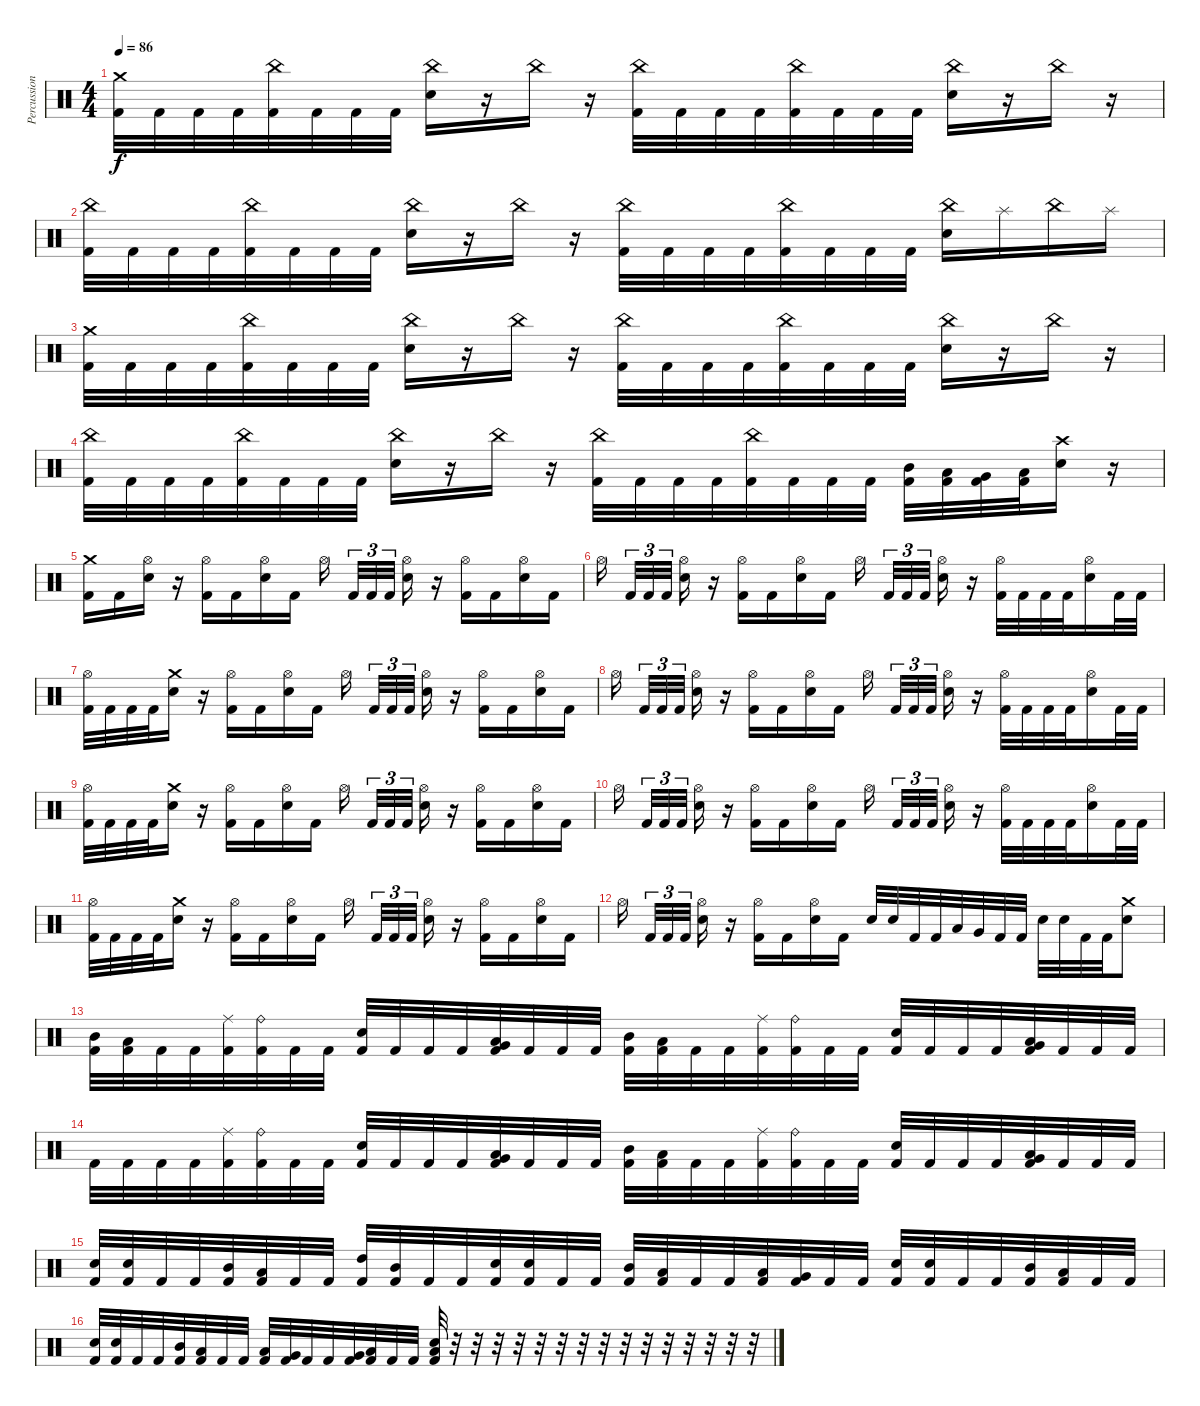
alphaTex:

\track ("Percussion" "Percussion") {instrument percussion}
\staff {score}
\articulation defaults
\ts (4 4)
\tempo 86
\clef neutral
\ks c
("Crash medium (hit)" "Kick (hit) 2").32{dy f} "Kick (hit) 2".32 "Kick (hit) 2".32 "Kick (hit) 2".32 ("China (hit)" "Kick (hit) 2").32 "Kick (hit) 2".32 "Kick (hit) 2".32 "Kick (hit) 2".32 ("China (hit)" "Electric Snare (hit)").16 r.16 "China (hit)".16 r.16 ("China (hit)" "Kick (hit) 2").32 "Kick (hit) 2".32 "Kick (hit) 2".32 "Kick (hit) 2".32 ("China (hit)" "Kick (hit) 2").32 "Kick (hit) 2".32 "Kick (hit) 2".32 "Kick (hit) 2".32 ("China (hit)" "Electric Snare (hit)").16 r.16 "China (hit)".16 r.16 |
("China (hit)" "Kick (hit) 2").32 "Kick (hit) 2".32 "Kick (hit) 2".32 "Kick (hit) 2".32 ("China (hit)" "Kick (hit) 2").32 "Kick (hit) 2".32 "Kick (hit) 2".32 "Kick (hit) 2".32 ("China (hit)" "Electric Snare (hit)").16 r.16 "China (hit)".16 r.16 ("China (hit)" "Kick (hit) 2").32 "Kick (hit) 2".32 "Kick (hit) 2".32 "Kick (hit) 2".32 ("China (hit)" "Kick (hit) 2").32 "Kick (hit) 2".32 "Kick (hit) 2".32 "Kick (hit) 2".32 ("China (hit)" "Electric Snare (hit)").16 "Splash (hit)".16 "China (hit)".16 "Splash (hit)".16 |
("Crash medium (hit)" "Kick (hit) 2").32 "Kick (hit) 2".32 "Kick (hit) 2".32 "Kick (hit) 2".32 ("China (hit)" "Kick (hit) 2").32 "Kick (hit) 2".32 "Kick (hit) 2".32 "Kick (hit) 2".32 ("China (hit)" "Electric Snare (hit)").16 r.16 "China (hit)".16 r.16 ("China (hit)" "Kick (hit) 2").32 "Kick (hit) 2".32 "Kick (hit) 2".32 "Kick (hit) 2".32 ("China (hit)" "Kick (hit) 2").32 "Kick (hit) 2".32 "Kick (hit) 2".32 "Kick (hit) 2".32 ("China (hit)" "Electric Snare (hit)").16 r.16 "China (hit)".16 r.16 |
("China (hit)" "Kick (hit) 2").32 "Kick (hit) 2".32 "Kick (hit) 2".32 "Kick (hit) 2".32 ("China (hit)" "Kick (hit) 2").32 "Kick (hit) 2".32 "Kick (hit) 2".32 "Kick (hit) 2".32 ("China (hit)" "Electric Snare (hit)").16 r.16 "China (hit)".16 r.16 ("China (hit)" "Kick (hit) 2").32 "Kick (hit) 2".32 "Kick (hit) 2".32 "Kick (hit) 2".32 ("China (hit)" "Kick (hit) 2").32 "Kick (hit) 2".32 "Kick (hit) 2".32 "Kick (hit) 2".32 ("Mid Tom (hit)" "Kick (hit) 2").32 ("Low Tom (hit)" "Kick (hit) 2").32 ("Very Low Tom (hit)" "Kick (hit) 2").32 ("Low Floor Tom (hit)" "Kick (hit) 2").32 ("Crash high (hit)" "Electric Snare (hit)").16 r.16 |
("Crash medium (hit)" "Kick (hit) 2").16 "Kick (hit) 2".16 ("Hi-Hat (open)" "Electric Snare (hit)").16 r.16 ("Hi-Hat (open)" "Kick (hit) 2").16 "Kick (hit) 2".16 ("Hi-Hat (open)" "Electric Snare (hit)").16 "Kick (hit) 2".16 "Hi-Hat (open)".16 "Kick (hit) 2".32{tu (3 2)} "Kick (hit) 2".32{tu (3 2)} "Kick (hit) 2".32{tu (3 2)} ("Hi-Hat (open)" "Electric Snare (hit)").16 r.16 ("Hi-Hat (open)" "Kick (hit) 2").16 "Kick (hit) 2".16 ("Hi-Hat (open)" "Electric Snare (hit)").16 "Kick (hit) 2".16 |
"Hi-Hat (open)".16 "Kick (hit) 2".32{tu (3 2)} "Kick (hit) 2".32{tu (3 2)} "Kick (hit) 2".32{tu (3 2)} ("Hi-Hat (open)" "Electric Snare (hit)").16 r.16 ("Hi-Hat (open)" "Kick (hit) 2").16 "Kick (hit) 2".16 ("Hi-Hat (open)" "Electric Snare (hit)").16 "Kick (hit) 2".16 "Hi-Hat (open)".16 "Kick (hit) 2".32{tu (3 2)} "Kick (hit) 2".32{tu (3 2)} "Kick (hit) 2".32{tu (3 2)} ("Hi-Hat (open)" "Electric Snare (hit)").16 r.16 ("Hi-Hat (open)" "Kick (hit) 2").32 "Kick (hit) 2".32 "Kick (hit) 2".32 "Kick (hit) 2".32 ("Hi-Hat (open)" "Electric Snare (hit)").16 "Kick (hit) 2".32 "Kick (hit) 2".32 |
("Hi-Hat (open)" "Kick (hit) 2").32 "Kick (hit) 2".32 "Kick (hit) 2".32 "Kick (hit) 2".32 ("Crash medium (hit)" "Electric Snare (hit)").16 r.16 ("Hi-Hat (open)" "Kick (hit) 2").16 "Kick (hit) 2".16 ("Hi-Hat (open)" "Electric Snare (hit)").16 "Kick (hit) 2".16 "Hi-Hat (open)".16 "Kick (hit) 2".32{tu (3 2)} "Kick (hit) 2".32{tu (3 2)} "Kick (hit) 2".32{tu (3 2)} ("Hi-Hat (open)" "Electric Snare (hit)").16 r.16 ("Hi-Hat (open)" "Kick (hit) 2").16 "Kick (hit) 2".16 ("Hi-Hat (open)" "Electric Snare (hit)").16 "Kick (hit) 2".16 |
"Hi-Hat (open)".16 "Kick (hit) 2".32{tu (3 2)} "Kick (hit) 2".32{tu (3 2)} "Kick (hit) 2".32{tu (3 2)} ("Hi-Hat (open)" "Electric Snare (hit)").16 r.16 ("Hi-Hat (open)" "Kick (hit) 2").16 "Kick (hit) 2".16 ("Hi-Hat (open)" "Electric Snare (hit)").16 "Kick (hit) 2".16 "Hi-Hat (open)".16 "Kick (hit) 2".32{tu (3 2)} "Kick (hit) 2".32{tu (3 2)} "Kick (hit) 2".32{tu (3 2)} ("Hi-Hat (open)" "Electric Snare (hit)").16 r.16 ("Hi-Hat (open)" "Kick (hit) 2").32 "Kick (hit) 2".32 "Kick (hit) 2".32 "Kick (hit) 2".32 ("Hi-Hat (open)" "Electric Snare (hit)").16 "Kick (hit) 2".32 "Kick (hit) 2".32 |
("Hi-Hat (open)" "Kick (hit) 2").32 "Kick (hit) 2".32 "Kick (hit) 2".32 "Kick (hit) 2".32 ("Crash medium (hit)" "Electric Snare (hit)").16 r.16 ("Hi-Hat (open)" "Kick (hit) 2").16 "Kick (hit) 2".16 ("Hi-Hat (open)" "Electric Snare (hit)").16 "Kick (hit) 2".16 "Hi-Hat (open)".16 "Kick (hit) 2".32{tu (3 2)} "Kick (hit) 2".32{tu (3 2)} "Kick (hit) 2".32{tu (3 2)} ("Hi-Hat (open)" "Electric Snare (hit)").16 r.16 ("Hi-Hat (open)" "Kick (hit) 2").16 "Kick (hit) 2".16 ("Hi-Hat (open)" "Electric Snare (hit)").16 "Kick (hit) 2".16 |
"Hi-Hat (open)".16 "Kick (hit) 2".32{tu (3 2)} "Kick (hit) 2".32{tu (3 2)} "Kick (hit) 2".32{tu (3 2)} ("Hi-Hat (open)" "Electric Snare (hit)").16 r.16 ("Hi-Hat (open)" "Kick (hit) 2").16 "Kick (hit) 2".16 ("Hi-Hat (open)" "Electric Snare (hit)").16 "Kick (hit) 2".16 "Hi-Hat (open)".16 "Kick (hit) 2".32{tu (3 2)} "Kick (hit) 2".32{tu (3 2)} "Kick (hit) 2".32{tu (3 2)} ("Hi-Hat (open)" "Electric Snare (hit)").16 r.16 ("Hi-Hat (open)" "Kick (hit) 2").32 "Kick (hit) 2".32 "Kick (hit) 2".32 "Kick (hit) 2".32 ("Hi-Hat (open)" "Electric Snare (hit)").16 "Kick (hit) 2".32 "Kick (hit) 2".32 |
("Hi-Hat (open)" "Kick (hit) 2").32 "Kick (hit) 2".32 "Kick (hit) 2".32 "Kick (hit) 2".32 ("Crash medium (hit)" "Electric Snare (hit)").16 r.16 ("Hi-Hat (open)" "Kick (hit) 2").16 "Kick (hit) 2".16 ("Hi-Hat (open)" "Electric Snare (hit)").16 "Kick (hit) 2".16 "Hi-Hat (open)".16 "Kick (hit) 2".32{tu (3 2)} "Kick (hit) 2".32{tu (3 2)} "Kick (hit) 2".32{tu (3 2)} ("Hi-Hat (open)" "Electric Snare (hit)").16 r.16 ("Hi-Hat (open)" "Kick (hit) 2").16 "Kick (hit) 2".16 ("Hi-Hat (open)" "Electric Snare (hit)").16 "Kick (hit) 2".16 |
"Hi-Hat (open)".16 "Kick (hit) 2".32{tu (3 2)} "Kick (hit) 2".32{tu (3 2)} "Kick (hit) 2".32{tu (3 2)} ("Hi-Hat (open)" "Electric Snare (hit)").16 r.16 ("Hi-Hat (open)" "Kick (hit) 2").16 "Kick (hit) 2".16 ("Hi-Hat (open)" "Electric Snare (hit)").16 "Kick (hit) 2".16 "Electric Snare (hit)".32 "Electric Snare (hit)".32 "Kick (hit) 2".32 "Kick (hit) 2".32 "Low Tom (hit)".32 "Very Low Tom (hit)".32 "Kick (hit) 2".32 "Kick (hit) 2".32 "Electric Snare (hit)".32 "Electric Snare (hit)".32 "Kick (hit) 2".32 "Kick (hit) 2".32 ("Crash medium (hit)" "Electric Snare (hit)").8 |
("Mid Tom (hit)" "Kick (hit) 2").32 ("Low Tom (hit)" "Kick (hit) 2").32 "Kick (hit) 2".32 "Kick (hit) 2".32 ("Ride (middle)" "Kick (hit) 2").32 ("Ride (bell)" "Kick (hit) 2").32 "Kick (hit) 2".32 "Kick (hit) 2".32 ("Electric Snare (hit)" "Kick (hit) 2").32 "Kick (hit) 2".32 "Kick (hit) 2".32 "Kick (hit) 2".32 ("Low Tom (hit)" "Very Low Tom (hit)" "Kick (hit) 2").32 "Kick (hit) 2".32 "Kick (hit) 2".32 "Kick (hit) 2".32 ("Mid Tom (hit)" "Kick (hit) 2").32 ("Low Tom (hit)" "Kick (hit) 2").32 "Kick (hit) 2".32 "Kick (hit) 2".32 ("Ride (middle)" "Kick (hit) 2").32 ("Ride (bell)" "Kick (hit) 2").32 "Kick (hit) 2".32 "Kick (hit) 2".32 ("Electric Snare (hit)" "Kick (hit) 2").32 "Kick (hit) 2".32 "Kick (hit) 2".32 "Kick (hit) 2".32 ("Low Tom (hit)" "Very Low Tom (hit)" "Kick (hit) 2").32 "Kick (hit) 2".32 "Kick (hit) 2".32 "Kick (hit) 2".32 |
"Kick (hit) 2".32 "Kick (hit) 2".32 "Kick (hit) 2".32 "Kick (hit) 2".32 ("Ride (middle)" "Kick (hit) 2").32 ("Ride (bell)" "Kick (hit) 2").32 "Kick (hit) 2".32 "Kick (hit) 2".32 ("Electric Snare (hit)" "Kick (hit) 2").32 "Kick (hit) 2".32 "Kick (hit) 2".32 "Kick (hit) 2".32 ("Low Tom (hit)" "Very Low Tom (hit)" "Kick (hit) 2").32 "Kick (hit) 2".32 "Kick (hit) 2".32 "Kick (hit) 2".32 ("Mid Tom (hit)" "Kick (hit) 2").32 ("Low Tom (hit)" "Kick (hit) 2").32 "Kick (hit) 2".32 "Kick (hit) 2".32 ("Ride (middle)" "Kick (hit) 2").32 ("Ride (bell)" "Kick (hit) 2").32 "Kick (hit) 2".32 "Kick (hit) 2".32 ("Electric Snare (hit)" "Kick (hit) 2").32 "Kick (hit) 2".32 "Kick (hit) 2".32 "Kick (hit) 2".32 ("Low Tom (hit)" "Very Low Tom (hit)" "Kick (hit) 2").32 "Kick (hit) 2".32 "Kick (hit) 2".32 "Kick (hit) 2".32 |
("Electric Snare (hit)" "Kick (hit) 2").32 ("Electric Snare (hit)" "Kick (hit) 2").32 "Kick (hit) 2".32 "Kick (hit) 2".32 ("Mid Tom (hit)" "Kick (hit) 2").32 ("Low Tom (hit)" "Kick (hit) 2").32 "Kick (hit) 2".32 "Kick (hit) 2".32 ("High Tom (hit)" "Kick (hit) 2").32 ("Mid Tom (hit)" "Kick (hit) 2").32 "Kick (hit) 2".32 "Kick (hit) 2".32 ("Electric Snare (hit)" "Kick (hit) 2").32 ("Electric Snare (hit)" "Kick (hit) 2").32 "Kick (hit) 2".32 "Kick (hit) 2".32 ("Mid Tom (hit)" "Kick (hit) 2").32 ("Low Tom (hit)" "Kick (hit) 2").32 "Kick (hit) 2".32 "Kick (hit) 2".32 ("Low Tom (hit)" "Kick (hit) 2").32 ("Very Low Tom (hit)" "Kick (hit) 2").32 "Kick (hit) 2".32 "Kick (hit) 2".32 ("Electric Snare (hit)" "Kick (hit) 2").32 ("Electric Snare (hit)" "Kick (hit) 2").32 "Kick (hit) 2".32 "Kick (hit) 2".32 ("Mid Tom (hit)" "Kick (hit) 2").32 ("Low Tom (hit)" "Kick (hit) 2").32 "Kick (hit) 2".32 "Kick (hit) 2".32 |
("Electric Snare (hit)" "Kick (hit) 2").32 ("Electric Snare (hit)" "Kick (hit) 2").32 "Kick (hit) 2".32 "Kick (hit) 2".32 ("Mid Tom (hit)" "Kick (hit) 2").32 ("Low Tom (hit)" "Kick (hit) 2").32 "Kick (hit) 2".32 "Kick (hit) 2".32 ("Low Tom (hit)" "Kick (hit) 2").32 ("Very Low Tom (hit)" "Kick (hit) 2").32 "Kick (hit) 2".32 "Kick (hit) 2".32 ("Very Low Tom (hit)" "Kick (hit) 2").32 ("Low Floor Tom (hit)" "Kick (hit) 2").32 "Kick (hit) 2".32 "Kick (hit) 2".32 ("Electric Snare (hit)" "Low Floor Tom (hit)" "Kick (hit) 2").32 r.32 r.32 r.32 r.32 r.32 r.32 r.32 r.32 r.32 r.32 r.32 r.32 r.32 r.32 r.32
